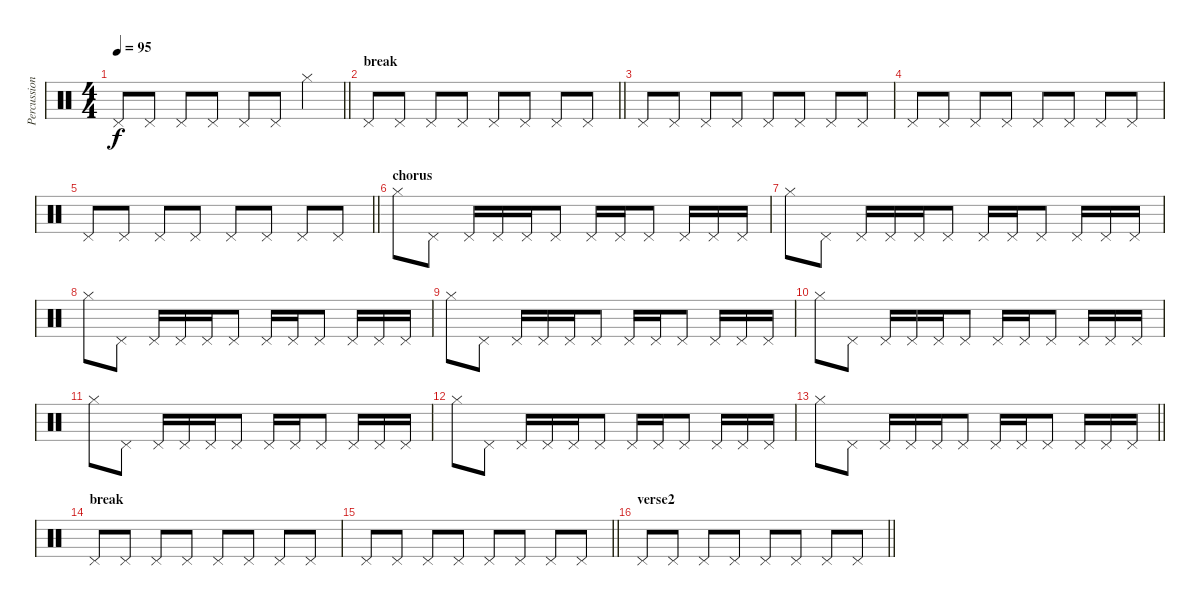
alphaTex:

\track ("Percussion" "Percussion") {instrument percussion}
\staff {score}
\articulation defaults
\ts (4 4)
\tempo 95
\clef neutral
\barLineRight lightlight
\ks c "Pedal Hi-Hat (hit)".8{dy f} "Pedal Hi-Hat (hit)".8 "Pedal Hi-Hat (hit)".8 "Pedal Hi-Hat (hit)".8 "Pedal Hi-Hat (hit)".8 "Pedal Hi-Hat (hit)".8 "Hi-Hat (closed)".4
|
\section ("" "break")
\barLineRight lightlight "Pedal Hi-Hat (hit)".8 "Pedal Hi-Hat (hit)".8 "Pedal Hi-Hat (hit)".8 "Pedal Hi-Hat (hit)".8 "Pedal Hi-Hat (hit)".8 "Pedal Hi-Hat (hit)".8 "Pedal Hi-Hat (hit)".8 "Pedal Hi-Hat (hit)".8
|
"Pedal Hi-Hat (hit)".8 "Pedal Hi-Hat (hit)".8 "Pedal Hi-Hat (hit)".8 "Pedal Hi-Hat (hit)".8 "Pedal Hi-Hat (hit)".8 "Pedal Hi-Hat (hit)".8 "Pedal Hi-Hat (hit)".8 "Pedal Hi-Hat (hit)".8 |
"Pedal Hi-Hat (hit)".8 "Pedal Hi-Hat (hit)".8 "Pedal Hi-Hat (hit)".8 "Pedal Hi-Hat (hit)".8 "Pedal Hi-Hat (hit)".8 "Pedal Hi-Hat (hit)".8 "Pedal Hi-Hat (hit)".8 "Pedal Hi-Hat (hit)".8 |
\barLineRight lightlight "Pedal Hi-Hat (hit)".8 "Pedal Hi-Hat (hit)".8 "Pedal Hi-Hat (hit)".8 "Pedal Hi-Hat (hit)".8 "Pedal Hi-Hat (hit)".8 "Pedal Hi-Hat (hit)".8 "Pedal Hi-Hat (hit)".8 "Pedal Hi-Hat (hit)".8
|
\section ("" "chorus")
"Hi-Hat (closed)".8 "Pedal Hi-Hat (hit)".8 "Pedal Hi-Hat (hit)".16 "Pedal Hi-Hat (hit)".16 "Pedal Hi-Hat (hit)".16 "Pedal Hi-Hat (hit)".8 "Pedal Hi-Hat (hit)".16 "Pedal Hi-Hat (hit)".16 "Pedal Hi-Hat (hit)".8 "Pedal Hi-Hat (hit)".16 "Pedal Hi-Hat (hit)".16 "Pedal Hi-Hat (hit)".16 |
"Hi-Hat (closed)".8 "Pedal Hi-Hat (hit)".8 "Pedal Hi-Hat (hit)".16 "Pedal Hi-Hat (hit)".16 "Pedal Hi-Hat (hit)".16 "Pedal Hi-Hat (hit)".8 "Pedal Hi-Hat (hit)".16 "Pedal Hi-Hat (hit)".16 "Pedal Hi-Hat (hit)".8 "Pedal Hi-Hat (hit)".16 "Pedal Hi-Hat (hit)".16 "Pedal Hi-Hat (hit)".16 |
"Hi-Hat (closed)".8 "Pedal Hi-Hat (hit)".8 "Pedal Hi-Hat (hit)".16 "Pedal Hi-Hat (hit)".16 "Pedal Hi-Hat (hit)".16 "Pedal Hi-Hat (hit)".8 "Pedal Hi-Hat (hit)".16 "Pedal Hi-Hat (hit)".16 "Pedal Hi-Hat (hit)".8 "Pedal Hi-Hat (hit)".16 "Pedal Hi-Hat (hit)".16 "Pedal Hi-Hat (hit)".16 |
"Hi-Hat (closed)".8 "Pedal Hi-Hat (hit)".8 "Pedal Hi-Hat (hit)".16 "Pedal Hi-Hat (hit)".16 "Pedal Hi-Hat (hit)".16 "Pedal Hi-Hat (hit)".8 "Pedal Hi-Hat (hit)".16 "Pedal Hi-Hat (hit)".16 "Pedal Hi-Hat (hit)".8 "Pedal Hi-Hat (hit)".16 "Pedal Hi-Hat (hit)".16 "Pedal Hi-Hat (hit)".16 |
"Hi-Hat (closed)".8 "Pedal Hi-Hat (hit)".8 "Pedal Hi-Hat (hit)".16 "Pedal Hi-Hat (hit)".16 "Pedal Hi-Hat (hit)".16 "Pedal Hi-Hat (hit)".8 "Pedal Hi-Hat (hit)".16 "Pedal Hi-Hat (hit)".16 "Pedal Hi-Hat (hit)".8 "Pedal Hi-Hat (hit)".16 "Pedal Hi-Hat (hit)".16 "Pedal Hi-Hat (hit)".16 |
"Hi-Hat (closed)".8 "Pedal Hi-Hat (hit)".8 "Pedal Hi-Hat (hit)".16 "Pedal Hi-Hat (hit)".16 "Pedal Hi-Hat (hit)".16 "Pedal Hi-Hat (hit)".8 "Pedal Hi-Hat (hit)".16 "Pedal Hi-Hat (hit)".16 "Pedal Hi-Hat (hit)".8 "Pedal Hi-Hat (hit)".16 "Pedal Hi-Hat (hit)".16 "Pedal Hi-Hat (hit)".16 |
"Hi-Hat (closed)".8 "Pedal Hi-Hat (hit)".8 "Pedal Hi-Hat (hit)".16 "Pedal Hi-Hat (hit)".16 "Pedal Hi-Hat (hit)".16 "Pedal Hi-Hat (hit)".8 "Pedal Hi-Hat (hit)".16 "Pedal Hi-Hat (hit)".16 "Pedal Hi-Hat (hit)".8 "Pedal Hi-Hat (hit)".16 "Pedal Hi-Hat (hit)".16 "Pedal Hi-Hat (hit)".16 |
\barLineRight lightlight "Hi-Hat (closed)".8 "Pedal Hi-Hat (hit)".8 "Pedal Hi-Hat (hit)".16 "Pedal Hi-Hat (hit)".16 "Pedal Hi-Hat (hit)".16 "Pedal Hi-Hat (hit)".8 "Pedal Hi-Hat (hit)".16 "Pedal Hi-Hat (hit)".16 "Pedal Hi-Hat (hit)".8 "Pedal Hi-Hat (hit)".16 "Pedal Hi-Hat (hit)".16 "Pedal Hi-Hat (hit)".16
|
\section ("" "break")
"Pedal Hi-Hat (hit)".8 "Pedal Hi-Hat (hit)".8 "Pedal Hi-Hat (hit)".8 "Pedal Hi-Hat (hit)".8 "Pedal Hi-Hat (hit)".8 "Pedal Hi-Hat (hit)".8 "Pedal Hi-Hat (hit)".8 "Pedal Hi-Hat (hit)".8 |
\barLineRight lightlight "Pedal Hi-Hat (hit)".8 "Pedal Hi-Hat (hit)".8 "Pedal Hi-Hat (hit)".8 "Pedal Hi-Hat (hit)".8 "Pedal Hi-Hat (hit)".8 "Pedal Hi-Hat (hit)".8 "Pedal Hi-Hat (hit)".8 "Pedal Hi-Hat (hit)".8
|
\section ("" "verse2")
\barLineRight lightlight "Pedal Hi-Hat (hit)".8 "Pedal Hi-Hat (hit)".8 "Pedal Hi-Hat (hit)".8 "Pedal Hi-Hat (hit)".8 "Pedal Hi-Hat (hit)".8 "Pedal Hi-Hat (hit)".8 "Pedal Hi-Hat (hit)".8 "Pedal Hi-Hat (hit)".8
